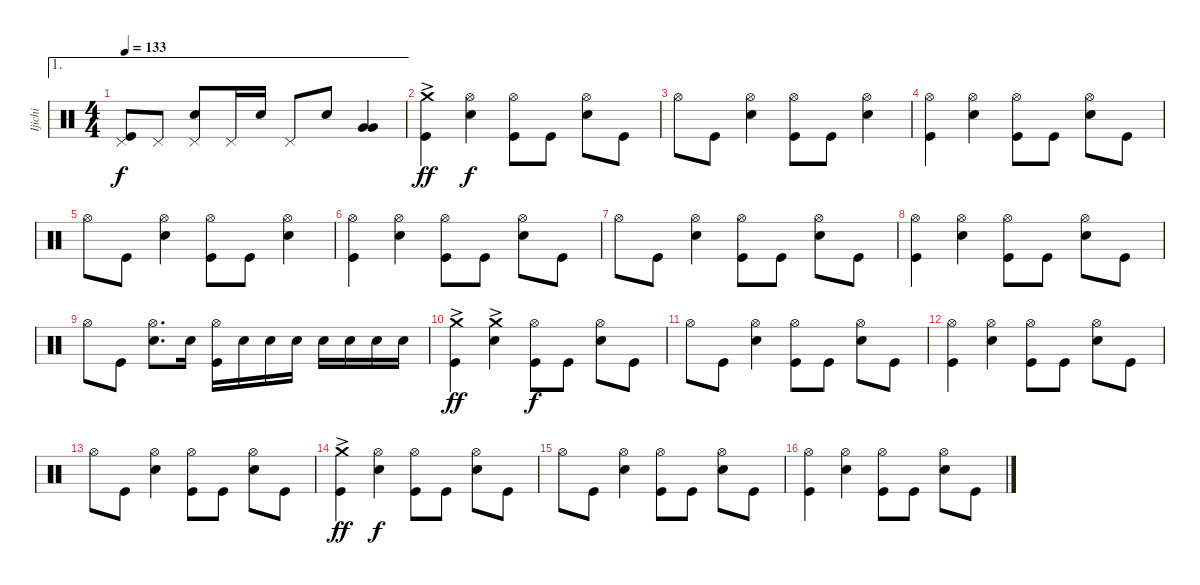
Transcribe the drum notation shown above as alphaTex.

\track ("Ijichi" "Ijichi") {instrument percussion}
\staff {score}
\articulation defaults
\ae 1
\ts (4 4)
\tempo 133
\clef neutral
\ks c
("Pedal Hi-Hat (hit)" "Kick (hit)").8{dy f} "Pedal Hi-Hat (hit)".8 ("Pedal Hi-Hat (hit)" "Electric Snare (hit)").8 "Pedal Hi-Hat (hit)".16 "Electric Snare (hit)".16 "Pedal Hi-Hat (hit)".8 "Electric Snare (hit)".8 ("Very Low Tom (hit)" "Very Low Tom (hit)").4 |
("Crash medium (hit)"{ac} "Kick (hit)").4{dy ff} ("Hi-Hat (open)" "Electric Snare (hit)").4{dy f} ("Hi-Hat (open)" "Kick (hit)").8 "Kick (hit)".8 ("Hi-Hat (open)" "Electric Snare (hit)").8 "Kick (hit)".8 |
"Hi-Hat (open)".8 "Kick (hit)".8 ("Hi-Hat (open)" "Electric Snare (hit)").4 ("Hi-Hat (open)" "Kick (hit)").8 "Kick (hit)".8 ("Hi-Hat (open)" "Electric Snare (hit)").4 |
("Hi-Hat (open)" "Kick (hit)").4 ("Hi-Hat (open)" "Electric Snare (hit)").4 ("Hi-Hat (open)" "Kick (hit)").8 "Kick (hit)".8 ("Hi-Hat (open)" "Electric Snare (hit)").8 "Kick (hit)".8 |
"Hi-Hat (open)".8 "Kick (hit)".8 ("Hi-Hat (open)" "Electric Snare (hit)").4 ("Hi-Hat (open)" "Kick (hit)").8 "Kick (hit)".8 ("Hi-Hat (open)" "Electric Snare (hit)").4 |
("Hi-Hat (open)" "Kick (hit)").4 ("Hi-Hat (open)" "Electric Snare (hit)").4 ("Hi-Hat (open)" "Kick (hit)").8 "Kick (hit)".8 ("Hi-Hat (open)" "Electric Snare (hit)").8 "Kick (hit)".8 |
"Hi-Hat (open)".8 "Kick (hit)".8 ("Hi-Hat (open)" "Electric Snare (hit)").4 ("Hi-Hat (open)" "Kick (hit)").8 "Kick (hit)".8 ("Hi-Hat (open)" "Electric Snare (hit)").8 "Kick (hit)".8 |
("Hi-Hat (open)" "Kick (hit)").4 ("Hi-Hat (open)" "Electric Snare (hit)").4 ("Hi-Hat (open)" "Kick (hit)").8 "Kick (hit)".8 ("Hi-Hat (open)" "Electric Snare (hit)").8 "Kick (hit)".8 |
"Hi-Hat (open)".8 "Kick (hit)".8 ("Hi-Hat (open)" "Electric Snare (hit)").8{d} "Electric Snare (hit)".16 ("Hi-Hat (open)" "Kick (hit)").16 "Electric Snare (hit)".16 "Electric Snare (hit)".16 "Electric Snare (hit)".16 "Electric Snare (hit)".16 "Electric Snare (hit)".16 "Electric Snare (hit)".16 "Electric Snare (hit)".16 |
("Crash medium (hit)"{ac} "Kick (hit)").4{dy ff} ("Crash medium (hit)"{ac} "Electric Snare (hit)").4 ("Hi-Hat (open)" "Kick (hit)").8{dy f} "Kick (hit)".8 ("Hi-Hat (open)" "Electric Snare (hit)").8 "Kick (hit)".8 |
"Hi-Hat (open)".8 "Kick (hit)".8 ("Hi-Hat (open)" "Electric Snare (hit)").4 ("Hi-Hat (open)" "Kick (hit)").8 "Kick (hit)".8 ("Hi-Hat (open)" "Electric Snare (hit)").8 "Kick (hit)".8 |
("Hi-Hat (open)" "Kick (hit)").4 ("Hi-Hat (open)" "Electric Snare (hit)").4 ("Hi-Hat (open)" "Kick (hit)").8 "Kick (hit)".8 ("Hi-Hat (open)" "Electric Snare (hit)").8 "Kick (hit)".8 |
"Hi-Hat (open)".8 "Kick (hit)".8 ("Hi-Hat (open)" "Electric Snare (hit)").4 ("Hi-Hat (open)" "Kick (hit)").8 "Kick (hit)".8 ("Hi-Hat (open)" "Electric Snare (hit)").8 "Kick (hit)".8 |
("Crash medium (hit)"{ac} "Kick (hit)").4{dy ff} ("Hi-Hat (open)" "Electric Snare (hit)").4{dy f} ("Hi-Hat (open)" "Kick (hit)").8 "Kick (hit)".8 ("Hi-Hat (open)" "Electric Snare (hit)").8 "Kick (hit)".8 |
"Hi-Hat (open)".8 "Kick (hit)".8 ("Hi-Hat (open)" "Electric Snare (hit)").4 ("Hi-Hat (open)" "Kick (hit)").8 "Kick (hit)".8 ("Hi-Hat (open)" "Electric Snare (hit)").8 "Kick (hit)".8 |
("Hi-Hat (open)" "Kick (hit)").4 ("Hi-Hat (open)" "Electric Snare (hit)").4 ("Hi-Hat (open)" "Kick (hit)").8 "Kick (hit)".8 ("Hi-Hat (open)" "Electric Snare (hit)").8 "Kick (hit)".8
